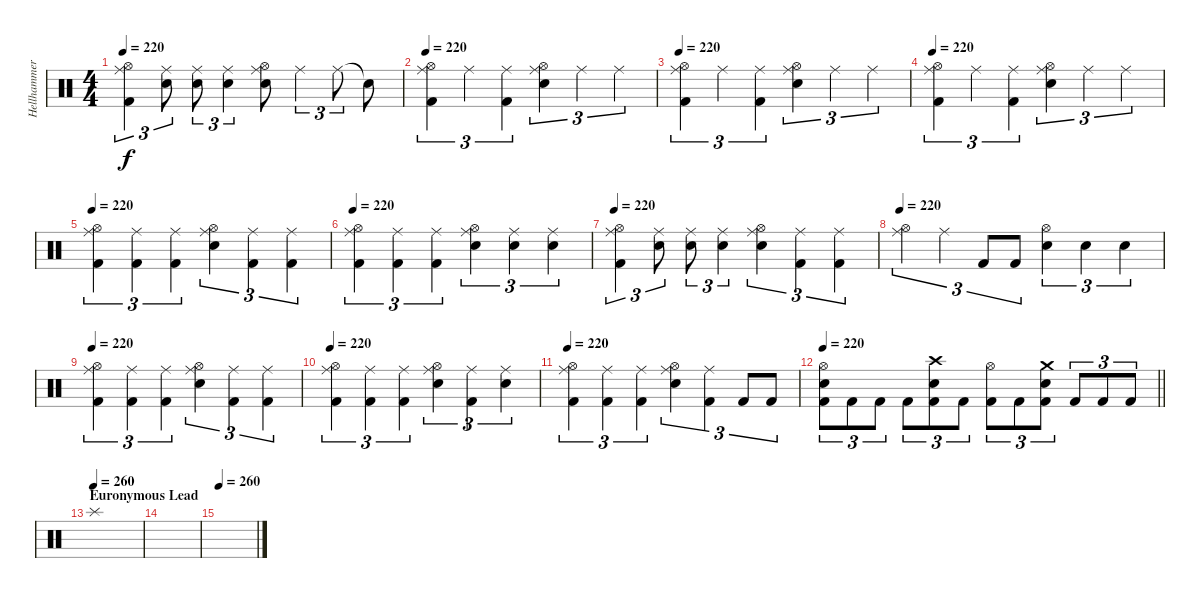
\track ("Hellhammer" "Hellhammer") {instrument percussion}
\staff {score}
\articulation defaults
\ts (4 4)
\tempo 220
\clef neutral
\ks c
("Ride (middle)" "Hi-Hat (open)" "Kick (hit) 2").4{tu (3 2) dy f} ("Ride (middle)" "Snare (hit) 2").8{tu (3 2)} ("Ride (middle)" "Snare (hit) 2").8{tu (3 2)} ("Ride (middle)" "Snare (hit) 2").4{tu (3 2)} ("Ride (middle)" "Hi-Hat (open)" "Snare (hit) 2").8 "Ride (middle)".4{tu (3 2)} "Ride (middle)".8{tu (3 2)} "Snare (hit)"{t}.8 |
\tempo 220
("Ride (middle)" "Hi-Hat (open)" "Kick (hit) 2").4{tu (3 2)} "Ride (middle)".4{tu (3 2)} ("Ride (middle)" "Kick (hit) 2").4{tu (3 2)} ("Ride (middle)" "Hi-Hat (open)" "Snare (hit) 2").4{tu (3 2)} "Ride (middle)".4{tu (3 2)} "Ride (middle)".4{tu (3 2)} |
\tempo 220
("Ride (middle)" "Hi-Hat (open)" "Kick (hit) 2").4{tu (3 2)} "Ride (middle)".4{tu (3 2)} ("Ride (middle)" "Kick (hit) 2").4{tu (3 2)} ("Ride (middle)" "Hi-Hat (open)" "Snare (hit) 2").4{tu (3 2)} "Ride (middle)".4{tu (3 2)} "Ride (middle)".4{tu (3 2)} |
\tempo 220
("Ride (middle)" "Hi-Hat (open)" "Kick (hit) 2").4{tu (3 2)} "Ride (middle)".4{tu (3 2)} ("Ride (middle)" "Kick (hit) 2").4{tu (3 2)} ("Ride (middle)" "Hi-Hat (open)" "Snare (hit) 2").4{tu (3 2)} "Ride (middle)".4{tu (3 2)} "Ride (middle)".4{tu (3 2)} |
\tempo 220
("Ride (middle)" "Hi-Hat (open)" "Kick (hit) 2").4{tu (3 2)} ("Ride (middle)" "Kick (hit) 2").4{tu (3 2)} ("Ride (middle)" "Kick (hit) 2").4{tu (3 2)} ("Ride (middle)" "Hi-Hat (open)" "Snare (hit) 2").4{tu (3 2)} ("Ride (middle)" "Kick (hit) 2").4{tu (3 2)} ("Ride (middle)" "Kick (hit) 2").4{tu (3 2)} |
\tempo 220
("Ride (middle)" "Hi-Hat (open)" "Kick (hit) 2").4{tu (3 2)} ("Ride (middle)" "Kick (hit) 2").4{tu (3 2)} ("Ride (middle)" "Kick (hit) 2").4{tu (3 2)} ("Ride (middle)" "Hi-Hat (open)" "Snare (hit) 2").4{tu (3 2)} ("Ride (middle)" "Snare (hit) 2").4{tu (3 2)} ("Ride (middle)" "Snare (hit) 2").4{tu (3 2)} |
\tempo 220
("Ride (middle)" "Hi-Hat (open)" "Kick (hit) 2").4{tu (3 2)} ("Ride (middle)" "Snare (hit) 2").8{tu (3 2)} ("Ride (middle)" "Snare (hit) 2").8{tu (3 2)} ("Ride (middle)" "Snare (hit) 2").4{tu (3 2)} ("Ride (middle)" "Hi-Hat (open)" "Snare (hit) 2").4{tu (3 2)} ("Ride (middle)" "Kick (hit) 2").4{tu (3 2)} ("Ride (middle)" "Kick (hit) 2").4{tu (3 2)} |
\tempo 220
("Ride (middle)" "Hi-Hat (open)").4{tu (3 2)} "Ride (middle)".4{tu (3 2)} "Kick (hit) 2".8{tu (3 2)} "Kick (hit) 2".8{tu (3 2)} ("Hi-Hat (open)" "Snare (hit) 2").4{tu (3 2)} "Snare (hit) 2".4{tu (3 2)} "Snare (hit) 2".4{tu (3 2)} |
\tempo 220
("Ride (middle)" "Hi-Hat (open)" "Kick (hit) 2").4{tu (3 2)} ("Ride (middle)" "Kick (hit) 2").4{tu (3 2)} ("Ride (middle)" "Kick (hit) 2").4{tu (3 2)} ("Ride (middle)" "Hi-Hat (open)" "Snare (hit) 2").4{tu (3 2)} ("Ride (middle)" "Kick (hit) 2").4{tu (3 2)} ("Ride (middle)" "Kick (hit) 2").4{tu (3 2)} |
\tempo 220
("Ride (middle)" "Hi-Hat (open)" "Kick (hit) 2").4{tu (3 2)} ("Ride (middle)" "Kick (hit) 2").4{tu (3 2)} ("Ride (middle)" "Kick (hit) 2").4{tu (3 2)} ("Ride (middle)" "Hi-Hat (open)" "Snare (hit) 2").4{tu (3 2)} ("Ride (middle)" "Kick (hit) 2").4{tu (3 2)} ("Ride (middle)" "Snare (hit) 2").4{tu (3 2)} |
\tempo 220
("Ride (middle)" "Hi-Hat (open)" "Kick (hit) 2").4{tu (3 2)} ("Ride (middle)" "Kick (hit) 2").4{tu (3 2)} ("Ride (middle)" "Kick (hit) 2").4{tu (3 2)} ("Ride (middle)" "Hi-Hat (open)" "Snare (hit) 2").4{tu (3 2)} ("Ride (middle)" "Kick (hit) 2").4{tu (3 2)} "Kick (hit) 2".8{tu (3 2)} "Kick (hit) 2".8{tu (3 2)} |
\tempo 220
\barLineRight lightlight
("Hi-Hat (open)" "Snare (hit) 2" "Kick (hit) 2").8{tu (3 2)} "Kick (hit) 2".8{tu (3 2)} "Kick (hit) 2".8{tu (3 2)} "Kick (hit) 2".8{tu (3 2)} ("Crash high (hit)" "Snare (hit) 2" "Kick (hit) 2").8{tu (3 2)} "Kick (hit) 2".8{tu (3 2)} ("Hi-Hat (open)" "Kick (hit) 2").8{tu (3 2)} "Kick (hit) 2".8{tu (3 2)} ("Crash medium (hit)" "Snare (hit) 2" "Kick (hit) 2").8{tu (3 2)} "Kick (hit) 2".8{tu (3 2)} "Kick (hit) 2".8{tu (3 2)} "Kick (hit) 2".8{tu (3 2)} |
\section ("" "Euronymous Lead")
\tempo (260)
"Splash (hit)".1 |
|
\tempo 260
